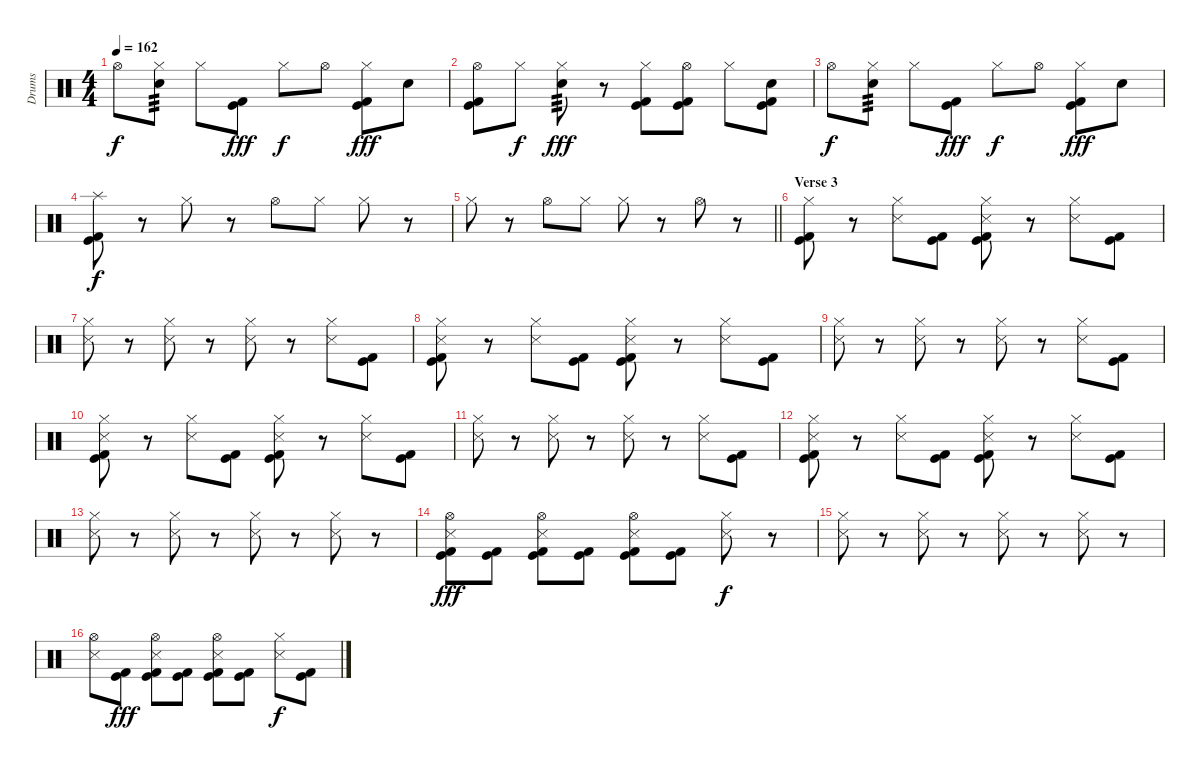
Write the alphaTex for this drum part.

\track ("Drums" "Drums") {instrument percussion}
\staff {score}
\articulation defaults
\ts (4 4)
\tempo 162
\clef neutral
\ks c "Hi-Hat (open)".8{dy f}
("Hi-Hat (closed)" "Electric Snare (hit)").8{tp 3} "Hi-Hat (closed)".8 ("Kick (hit)" "Kick (hit) 2").8{dy fff} "Hi-Hat (closed)".8{dy f} "Hi-Hat (open)".8 ("Hi-Hat (closed)" "Kick (hit)" "Kick (hit) 2").8{dy fff} "Electric Snare (hit)".8 |
("Hi-Hat (open)" "Kick (hit)" "Kick (hit) 2").8 "Hi-Hat (closed)".8{dy f} ("Hi-Hat (closed)" "Electric Snare (hit)").8{tp 3 dy fff} r.8 ("Hi-Hat (closed)" "Kick (hit)" "Kick (hit) 2").8 ("Hi-Hat (open)" "Kick (hit)" "Kick (hit) 2").8 "Hi-Hat (closed)".8 ("Electric Snare (hit)" "Kick (hit)" "Kick (hit) 2").8 |
"Hi-Hat (open)".8{dy f} ("Hi-Hat (closed)" "Electric Snare (hit)").8{tp 3} "Hi-Hat (closed)".8 ("Kick (hit)" "Kick (hit) 2").8{dy fff} "Hi-Hat (closed)".8{dy f} "Hi-Hat (open)".8 ("Hi-Hat (closed)" "Kick (hit)" "Kick (hit) 2").8{dy fff} "Electric Snare (hit)".8 |
("Splash (hit)" "Kick (hit)" "Kick (hit) 2").8{dy f} r.8 "Hi-Hat (closed)".8 r.8 "Hi-Hat (open)".8 "Hi-Hat (closed)".8 "Hi-Hat (closed)".8 r.8 |
\barLineRight lightlight "Hi-Hat (closed)".8
r.8 "Hi-Hat (open)".8 "Hi-Hat (closed)".8 "Hi-Hat (closed)".8 r.8 "Hi-Hat (open)".8 r.8 |
\section ("" "Verse 3")
\ks aminor
("Hi-Hat (closed)" "Kick (hit)" "Kick (hit) 2").8 r.8 ("Hi-Hat (closed)" "Metronome (hit)").8 ("Kick (hit)" "Kick (hit) 2").8 ("Hi-Hat (closed)" "Metronome (hit)" "Kick (hit)" "Kick (hit) 2").8 r.8 ("Hi-Hat (closed)" "Metronome (hit)").8 ("Kick (hit)" "Kick (hit) 2").8 |
("Hi-Hat (closed)" "Metronome (hit)").8 r.8 ("Hi-Hat (closed)" "Metronome (hit)").8 r.8 ("Hi-Hat (closed)" "Metronome (hit)").8 r.8 ("Hi-Hat (closed)" "Metronome (hit)").8 ("Kick (hit)" "Kick (hit) 2").8 |
("Hi-Hat (closed)" "Metronome (hit)" "Kick (hit)" "Kick (hit) 2").8 r.8 ("Hi-Hat (closed)" "Metronome (hit)").8 ("Kick (hit)" "Kick (hit) 2").8 ("Hi-Hat (closed)" "Metronome (hit)" "Kick (hit)" "Kick (hit) 2").8 r.8 ("Hi-Hat (closed)" "Metronome (hit)").8 ("Kick (hit)" "Kick (hit) 2").8 |
("Hi-Hat (closed)" "Metronome (hit)").8 r.8 ("Hi-Hat (closed)" "Metronome (hit)").8 r.8 ("Hi-Hat (closed)" "Metronome (hit)").8 r.8 ("Hi-Hat (closed)" "Metronome (hit)").8 ("Kick (hit)" "Kick (hit) 2").8 |
("Hi-Hat (closed)" "Metronome (hit)" "Kick (hit)" "Kick (hit) 2").8 r.8 ("Hi-Hat (closed)" "Metronome (hit)").8 ("Kick (hit)" "Kick (hit) 2").8 ("Hi-Hat (closed)" "Metronome (hit)" "Kick (hit)" "Kick (hit) 2").8 r.8 ("Hi-Hat (closed)" "Metronome (hit)").8 ("Kick (hit)" "Kick (hit) 2").8 |
("Hi-Hat (closed)" "Metronome (hit)").8 r.8 ("Hi-Hat (closed)" "Metronome (hit)").8 r.8 ("Hi-Hat (closed)" "Metronome (hit)").8 r.8 ("Hi-Hat (closed)" "Metronome (hit)").8 ("Kick (hit)" "Kick (hit) 2").8 |
("Hi-Hat (closed)" "Metronome (hit)" "Kick (hit)" "Kick (hit) 2").8 r.8 ("Hi-Hat (closed)" "Metronome (hit)").8 ("Kick (hit)" "Kick (hit) 2").8 ("Hi-Hat (closed)" "Metronome (hit)" "Kick (hit)" "Kick (hit) 2").8 r.8 ("Hi-Hat (closed)" "Metronome (hit)").8 ("Kick (hit)" "Kick (hit) 2").8 |
("Hi-Hat (closed)" "Metronome (hit)").8 r.8 ("Hi-Hat (closed)" "Metronome (hit)").8 r.8 ("Hi-Hat (closed)" "Metronome (hit)").8 r.8 ("Hi-Hat (closed)" "Metronome (hit)").8 r.8 |
("Hi-Hat (open)" "Metronome (hit)" "Kick (hit)" "Kick (hit) 2").8{dy fff} ("Kick (hit)" "Kick (hit) 2").8 ("Hi-Hat (open)" "Metronome (hit)" "Kick (hit)" "Kick (hit) 2").8 ("Kick (hit)" "Kick (hit) 2").8 ("Hi-Hat (open)" "Metronome (hit)" "Kick (hit)" "Kick (hit) 2").8 ("Kick (hit)" "Kick (hit) 2").8 ("Hi-Hat (closed)" "Metronome (hit)").8{dy f} r.8 |
\ks c
("Hi-Hat (closed)" "Metronome (hit)").8 r.8 ("Hi-Hat (closed)" "Metronome (hit)").8 r.8 ("Hi-Hat (closed)" "Metronome (hit)").8 r.8 ("Hi-Hat (closed)" "Metronome (hit)").8 r.8 |
("Hi-Hat (open)" "Metronome (hit)").8 ("Kick (hit)" "Kick (hit) 2").8{dy fff} ("Hi-Hat (open)" "Metronome (hit)" "Kick (hit)" "Kick (hit) 2").8 ("Kick (hit)" "Kick (hit) 2").8 ("Hi-Hat (open)" "Metronome (hit)" "Kick (hit)" "Kick (hit) 2").8 ("Kick (hit)" "Kick (hit) 2").8 ("Hi-Hat (closed)" "Metronome (hit)").8{dy f} ("Kick (hit)" "Kick (hit) 2").8
